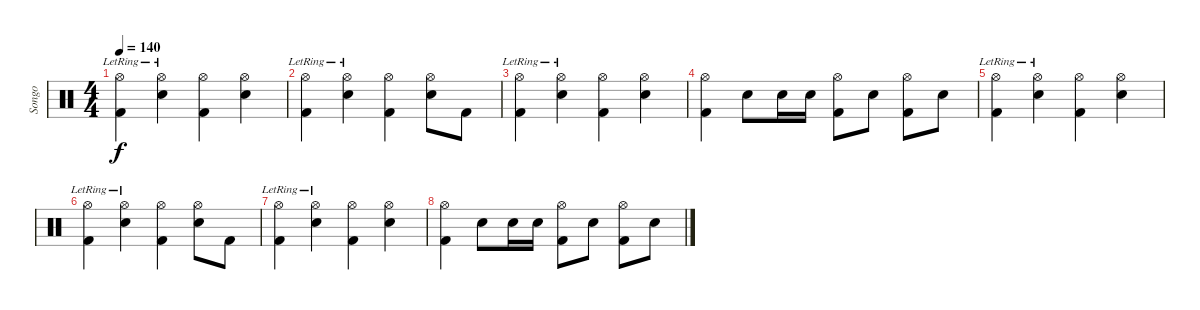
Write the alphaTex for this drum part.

\track ("Songo" "Songo") {instrument percussion}
\staff {score}
\articulation defaults
\ts (4 4)
\tempo 140
\clef neutral
\ks c
("Hi-Hat (open)"{lr} "Kick (hit) 2").4{dy f} ("Hi-Hat (open)"{lr} "Electric Snare (hit)").4 ("Hi-Hat (open)" "Kick (hit) 2").4 ("Hi-Hat (open)" "Electric Snare (hit)").4 |
("Hi-Hat (open)"{lr} "Kick (hit) 2").4 ("Hi-Hat (open)"{lr} "Electric Snare (hit)").4 ("Hi-Hat (open)" "Kick (hit) 2").4 ("Hi-Hat (open)" "Electric Snare (hit)").8 "Kick (hit) 2".8 |
("Hi-Hat (open)"{lr} "Kick (hit) 2").4 ("Hi-Hat (open)"{lr} "Electric Snare (hit)").4 ("Hi-Hat (open)" "Kick (hit) 2").4 ("Hi-Hat (open)" "Electric Snare (hit)").4 |
("Hi-Hat (open)" "Kick (hit) 2").4 "Electric Snare (hit)".8 "Electric Snare (hit)".16 "Electric Snare (hit)".16 ("Hi-Hat (open)" "Kick (hit) 2").8 "Electric Snare (hit)".8 ("Hi-Hat (open)" "Kick (hit) 2").8 "Electric Snare (hit)".8 |
("Hi-Hat (open)"{lr} "Kick (hit) 2").4 ("Hi-Hat (open)"{lr} "Electric Snare (hit)").4 ("Hi-Hat (open)" "Kick (hit) 2").4 ("Hi-Hat (open)" "Electric Snare (hit)").4 |
("Hi-Hat (open)"{lr} "Kick (hit) 2").4 ("Hi-Hat (open)"{lr} "Electric Snare (hit)").4 ("Hi-Hat (open)" "Kick (hit) 2").4 ("Hi-Hat (open)" "Electric Snare (hit)").8 "Kick (hit) 2".8 |
("Hi-Hat (open)"{lr} "Kick (hit) 2").4 ("Hi-Hat (open)"{lr} "Electric Snare (hit)").4 ("Hi-Hat (open)" "Kick (hit) 2").4 ("Hi-Hat (open)" "Electric Snare (hit)").4 |
("Hi-Hat (open)" "Kick (hit) 2").4 "Electric Snare (hit)".8 "Electric Snare (hit)".16 "Electric Snare (hit)".16 ("Hi-Hat (open)" "Kick (hit) 2").8 "Electric Snare (hit)".8 ("Hi-Hat (open)" "Kick (hit) 2").8 "Electric Snare (hit)".8
